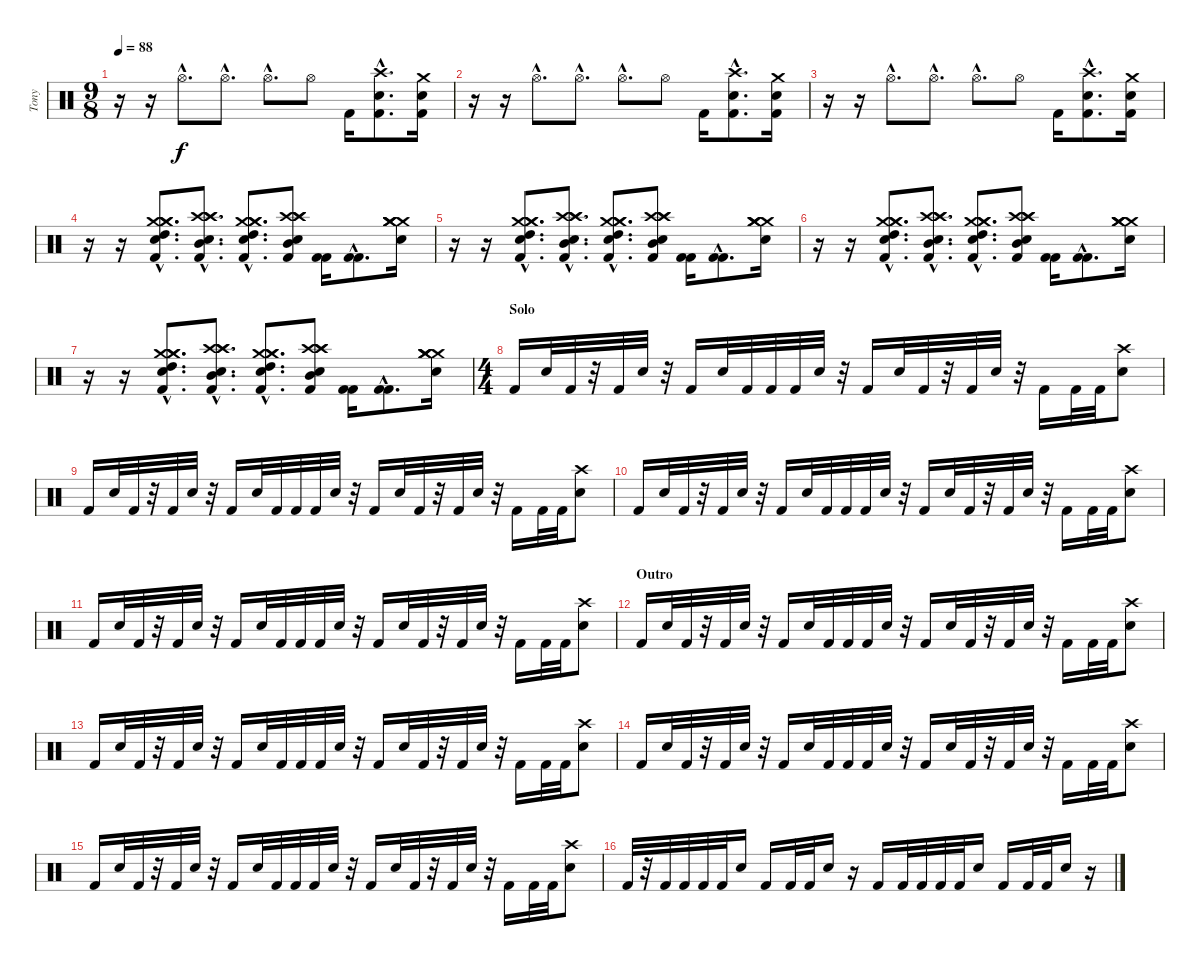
\track ("Tony" "Tony") {instrument percussion}
\staff {score}
\articulation defaults
\ts (9 8)
\tempo 88
\clef neutral
\ks c
r.16{dy f} r.16 "Hi-Hat (open)"{hac}.8{d} "Hi-Hat (open)"{hac}.8{d} "Hi-Hat (open)"{hac}.8{d} "Hi-Hat (open)".8 "Kick (hit) 2".16 ("Crash high (hit)"{hac} "Electric Snare (hit)"{hac} "Kick (hit) 2"{hac}).8{d} ("Crash medium (hit)" "Electric Snare (hit)" "Kick (hit) 2").16 |
r.16 r.16 "Hi-Hat (open)"{hac}.8{d} "Hi-Hat (open)"{hac}.8{d} "Hi-Hat (open)"{hac}.8{d} "Hi-Hat (open)".8 "Kick (hit) 2".16 ("Crash high (hit)"{hac} "Electric Snare (hit)"{hac} "Kick (hit) 2"{hac}).8{d} ("Crash medium (hit)" "Electric Snare (hit)" "Kick (hit) 2").16 |
r.16 r.16 "Hi-Hat (open)"{hac}.8{d} "Hi-Hat (open)"{hac}.8{d} "Hi-Hat (open)"{hac}.8{d} "Hi-Hat (open)".8 "Kick (hit) 2".16 ("Crash high (hit)"{hac} "Electric Snare (hit)"{hac} "Kick (hit) 2"{hac}).8{d} ("Crash medium (hit)" "Electric Snare (hit)" "Kick (hit) 2").16 |
r.16 r.16 ("Crash medium (hit)"{hac} "Crash medium (hit)"{hac} "Electric Snare (hit)"{hac} "Crash medium (hit)"{hac} "High Tom (hit)"{hac} "Kick (hit) 2"{hac}).8{d} ("Crash high (hit)"{hac} "Crash high (hit)"{hac} "Electric Snare (hit)"{hac} "Crash high (hit)"{hac} "Mid Tom (hit)"{hac} "Kick (hit) 2"{hac}).8{d} ("Crash medium (hit)"{hac} "Crash medium (hit)"{hac} "Electric Snare (hit)"{hac} "Crash medium (hit)"{hac} "High Tom (hit)"{hac} "Kick (hit) 2"{hac}).8{d} ("Crash high (hit)" "Crash high (hit)" "Electric Snare (hit)" "Crash high (hit)" "Mid Tom (hit)" "Kick (hit) 2").8 ("Kick (hit) 2" "Kick (hit) 2").16 ("Kick (hit) 2"{hac} "Kick (hit) 2"{hac}).8{d} ("Crash medium (hit)" "Crash medium (hit)" "Crash medium (hit)" "Crash medium (hit)" "Electric Snare (hit)").16 |
r.16 r.16 ("Crash medium (hit)"{hac} "Crash medium (hit)"{hac} "Electric Snare (hit)"{hac} "Crash medium (hit)"{hac} "High Tom (hit)"{hac} "Kick (hit) 2"{hac}).8{d} ("Crash high (hit)"{hac} "Crash high (hit)"{hac} "Electric Snare (hit)"{hac} "Crash high (hit)"{hac} "Mid Tom (hit)"{hac} "Kick (hit) 2"{hac}).8{d} ("Crash medium (hit)"{hac} "Crash medium (hit)"{hac} "Electric Snare (hit)"{hac} "Crash medium (hit)"{hac} "High Tom (hit)"{hac} "Kick (hit) 2"{hac}).8{d} ("Crash high (hit)" "Crash high (hit)" "Electric Snare (hit)" "Crash high (hit)" "Mid Tom (hit)" "Kick (hit) 2").8 ("Kick (hit) 2" "Kick (hit) 2").16 ("Kick (hit) 2"{hac} "Kick (hit) 2"{hac}).8{d} ("Crash medium (hit)" "Crash medium (hit)" "Crash medium (hit)" "Crash medium (hit)" "Electric Snare (hit)").16 |
r.16 r.16 ("Crash medium (hit)"{hac} "Crash medium (hit)"{hac} "Electric Snare (hit)"{hac} "Crash medium (hit)"{hac} "High Tom (hit)"{hac} "Kick (hit) 2"{hac}).8{d} ("Crash high (hit)"{hac} "Crash high (hit)"{hac} "Electric Snare (hit)"{hac} "Crash high (hit)"{hac} "Mid Tom (hit)"{hac} "Kick (hit) 2"{hac}).8{d} ("Crash medium (hit)"{hac} "Crash medium (hit)"{hac} "Electric Snare (hit)"{hac} "Crash medium (hit)"{hac} "High Tom (hit)"{hac} "Kick (hit) 2"{hac}).8{d} ("Crash high (hit)" "Crash high (hit)" "Electric Snare (hit)" "Crash high (hit)" "Mid Tom (hit)" "Kick (hit) 2").8 ("Kick (hit) 2" "Kick (hit) 2").16 ("Kick (hit) 2"{hac} "Kick (hit) 2"{hac}).8{d} ("Crash medium (hit)" "Crash medium (hit)" "Crash medium (hit)" "Crash medium (hit)" "Electric Snare (hit)").16 |
r.16 r.16 ("Crash medium (hit)"{hac} "Crash medium (hit)"{hac} "Electric Snare (hit)"{hac} "Crash medium (hit)"{hac} "High Tom (hit)"{hac} "Kick (hit) 2"{hac}).8{d} ("Crash high (hit)"{hac} "Crash high (hit)"{hac} "Electric Snare (hit)"{hac} "Crash high (hit)"{hac} "Mid Tom (hit)"{hac} "Kick (hit) 2"{hac}).8{d} ("Crash medium (hit)"{hac} "Crash medium (hit)"{hac} "Electric Snare (hit)"{hac} "Crash medium (hit)"{hac} "High Tom (hit)"{hac} "Kick (hit) 2"{hac}).8{d} ("Crash high (hit)" "Crash high (hit)" "Electric Snare (hit)" "Crash high (hit)" "Mid Tom (hit)" "Kick (hit) 2").8 ("Kick (hit) 2" "Kick (hit) 2").16 ("Kick (hit) 2"{hac} "Kick (hit) 2"{hac}).8{d} ("Crash medium (hit)" "Crash medium (hit)" "Crash medium (hit)" "Crash medium (hit)" "Electric Snare (hit)").16 |
\ts (4 4)
\section ("" "Solo")
"Kick (hit) 2".16 "Electric Snare (hit)".32 "Kick (hit) 2".32 r.32 "Kick (hit) 2".32 "Electric Snare (hit)".32 r.32 "Kick (hit) 2".16 "Electric Snare (hit)".32 "Kick (hit) 2".32 "Kick (hit) 2".32 "Kick (hit) 2".32 "Electric Snare (hit)".32 r.32 "Kick (hit) 2".16 "Electric Snare (hit)".32 "Kick (hit) 2".32 r.32 "Kick (hit) 2".32 "Electric Snare (hit)".32 r.32 "Kick (hit) 2".16 "Kick (hit) 2".32 "Kick (hit) 2".32 ("Crash high (hit)" "Electric Snare (hit)").8 |
"Kick (hit) 2".16 "Electric Snare (hit)".32 "Kick (hit) 2".32 r.32 "Kick (hit) 2".32 "Electric Snare (hit)".32 r.32 "Kick (hit) 2".16 "Electric Snare (hit)".32 "Kick (hit) 2".32 "Kick (hit) 2".32 "Kick (hit) 2".32 "Electric Snare (hit)".32 r.32 "Kick (hit) 2".16 "Electric Snare (hit)".32 "Kick (hit) 2".32 r.32 "Kick (hit) 2".32 "Electric Snare (hit)".32 r.32 "Kick (hit) 2".16 "Kick (hit) 2".32 "Kick (hit) 2".32 ("Crash high (hit)" "Electric Snare (hit)").8 |
"Kick (hit) 2".16 "Electric Snare (hit)".32 "Kick (hit) 2".32 r.32 "Kick (hit) 2".32 "Electric Snare (hit)".32 r.32 "Kick (hit) 2".16 "Electric Snare (hit)".32 "Kick (hit) 2".32 "Kick (hit) 2".32 "Kick (hit) 2".32 "Electric Snare (hit)".32 r.32 "Kick (hit) 2".16 "Electric Snare (hit)".32 "Kick (hit) 2".32 r.32 "Kick (hit) 2".32 "Electric Snare (hit)".32 r.32 "Kick (hit) 2".16 "Kick (hit) 2".32 "Kick (hit) 2".32 ("Crash high (hit)" "Electric Snare (hit)").8 |
"Kick (hit) 2".16 "Electric Snare (hit)".32 "Kick (hit) 2".32 r.32 "Kick (hit) 2".32 "Electric Snare (hit)".32 r.32 "Kick (hit) 2".16 "Electric Snare (hit)".32 "Kick (hit) 2".32 "Kick (hit) 2".32 "Kick (hit) 2".32 "Electric Snare (hit)".32 r.32 "Kick (hit) 2".16 "Electric Snare (hit)".32 "Kick (hit) 2".32 r.32 "Kick (hit) 2".32 "Electric Snare (hit)".32 r.32 "Kick (hit) 2".16 "Kick (hit) 2".32 "Kick (hit) 2".32 ("Crash high (hit)" "Electric Snare (hit)").8 |
\section ("" "Outro")
"Kick (hit) 2".16 "Electric Snare (hit)".32 "Kick (hit) 2".32 r.32 "Kick (hit) 2".32 "Electric Snare (hit)".32 r.32 "Kick (hit) 2".16 "Electric Snare (hit)".32 "Kick (hit) 2".32 "Kick (hit) 2".32 "Kick (hit) 2".32 "Electric Snare (hit)".32 r.32 "Kick (hit) 2".16 "Electric Snare (hit)".32 "Kick (hit) 2".32 r.32 "Kick (hit) 2".32 "Electric Snare (hit)".32 r.32 "Kick (hit) 2".16 "Kick (hit) 2".32 "Kick (hit) 2".32 ("Crash high (hit)" "Electric Snare (hit)").8 |
"Kick (hit) 2".16 "Electric Snare (hit)".32 "Kick (hit) 2".32 r.32 "Kick (hit) 2".32 "Electric Snare (hit)".32 r.32 "Kick (hit) 2".16 "Electric Snare (hit)".32 "Kick (hit) 2".32 "Kick (hit) 2".32 "Kick (hit) 2".32 "Electric Snare (hit)".32 r.32 "Kick (hit) 2".16 "Electric Snare (hit)".32 "Kick (hit) 2".32 r.32 "Kick (hit) 2".32 "Electric Snare (hit)".32 r.32 "Kick (hit) 2".16 "Kick (hit) 2".32 "Kick (hit) 2".32 ("Crash high (hit)" "Electric Snare (hit)").8 |
"Kick (hit) 2".16 "Electric Snare (hit)".32 "Kick (hit) 2".32 r.32 "Kick (hit) 2".32 "Electric Snare (hit)".32 r.32 "Kick (hit) 2".16 "Electric Snare (hit)".32 "Kick (hit) 2".32 "Kick (hit) 2".32 "Kick (hit) 2".32 "Electric Snare (hit)".32 r.32 "Kick (hit) 2".16 "Electric Snare (hit)".32 "Kick (hit) 2".32 r.32 "Kick (hit) 2".32 "Electric Snare (hit)".32 r.32 "Kick (hit) 2".16 "Kick (hit) 2".32 "Kick (hit) 2".32 ("Crash high (hit)" "Electric Snare (hit)").8 |
"Kick (hit) 2".16 "Electric Snare (hit)".32 "Kick (hit) 2".32 r.32 "Kick (hit) 2".32 "Electric Snare (hit)".32 r.32 "Kick (hit) 2".16 "Electric Snare (hit)".32 "Kick (hit) 2".32 "Kick (hit) 2".32 "Kick (hit) 2".32 "Electric Snare (hit)".32 r.32 "Kick (hit) 2".16 "Electric Snare (hit)".32 "Kick (hit) 2".32 r.32 "Kick (hit) 2".32 "Electric Snare (hit)".32 r.32 "Kick (hit) 2".16 "Kick (hit) 2".32 "Kick (hit) 2".32 ("Crash high (hit)" "Electric Snare (hit)").8 |
"Kick (hit) 2".32 r.32 "Kick (hit) 2".32 "Kick (hit) 2".32 "Kick (hit) 2".32 "Kick (hit) 2".32 "Electric Snare (hit)".16 "Kick (hit) 2".16 "Kick (hit) 2".32 "Kick (hit) 2".32 "Electric Snare (hit)".16 r.16 "Kick (hit) 2".16 "Kick (hit) 2".32 "Kick (hit) 2".32 "Kick (hit) 2".32 "Kick (hit) 2".32 "Electric Snare (hit)".16 "Kick (hit) 2".16 "Kick (hit) 2".32 "Kick (hit) 2".32 "Electric Snare (hit)".16 r.16
